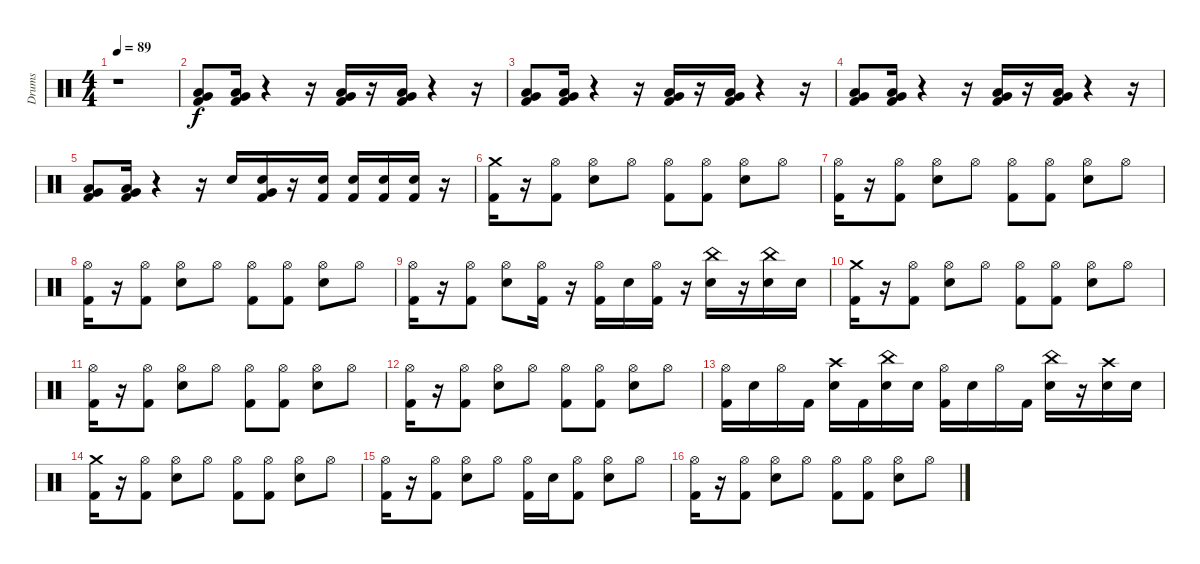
\track ("Drums" "Drums") {instrument percussion}
\staff {score}
\articulation defaults
\ts (4 4)
\tempo 89
\clef neutral
\ks c
r.1{dy f} |
("Very Low Tom (hit)" "Low Tom (hit)" "Kick (hit) 2").8 ("Low Tom (hit)" "Very Low Tom (hit)" "Kick (hit) 2").16 r.4 r.16 ("Low Tom (hit)" "Very Low Tom (hit)" "Kick (hit) 2").16 r.16 ("Low Tom (hit)" "Very Low Tom (hit)" "Kick (hit) 2").16 r.4 r.16 |
("Very Low Tom (hit)" "Low Tom (hit)" "Kick (hit) 2").8 ("Low Tom (hit)" "Very Low Tom (hit)" "Kick (hit) 2").16 r.4 r.16 ("Low Tom (hit)" "Very Low Tom (hit)" "Kick (hit) 2").16 r.16 ("Low Tom (hit)" "Very Low Tom (hit)" "Kick (hit) 2").16 r.4 r.16 |
("Very Low Tom (hit)" "Low Tom (hit)" "Kick (hit) 2").8 ("Low Tom (hit)" "Very Low Tom (hit)" "Kick (hit) 2").16 r.4 r.16 ("Low Tom (hit)" "Very Low Tom (hit)" "Kick (hit) 2").16 r.16 ("Low Tom (hit)" "Very Low Tom (hit)" "Kick (hit) 2").16 r.4 r.16 |
("Very Low Tom (hit)" "Low Tom (hit)" "Kick (hit) 2").8 ("Low Tom (hit)" "Very Low Tom (hit)" "Kick (hit) 2").16 r.4 r.16 "Snare (hit) 2".16 ("Very Low Tom (hit)" "Kick (hit) 2" "Snare (hit) 2").16 r.16 ("Kick (hit) 2" "Snare (hit) 2").16 ("Kick (hit) 2" "Snare (hit) 2").16 ("Kick (hit) 2" "Snare (hit) 2").16 ("Kick (hit) 2" "Snare (hit) 2").16 r.16 |
("Kick (hit) 2" "Crash medium (hit)").16 r.16 ("Hi-Hat (open)" "Kick (hit) 2").8 ("Hi-Hat (open)" "Snare (hit) 2").8 "Hi-Hat (open)".8 ("Kick (hit) 2" "Hi-Hat (open)").8 ("Kick (hit) 2" "Hi-Hat (open)").8 ("Snare (hit) 2" "Hi-Hat (open)").8 "Hi-Hat (open)".8 |
("Kick (hit) 2" "Hi-Hat (open)").16 r.16 ("Kick (hit) 2" "Hi-Hat (open)").8 ("Snare (hit) 2" "Hi-Hat (open)").8 "Hi-Hat (open)".8 ("Kick (hit) 2" "Hi-Hat (open)").8 ("Kick (hit) 2" "Hi-Hat (open)").8 ("Snare (hit) 2" "Hi-Hat (open)").8 "Hi-Hat (open)".8 |
("Kick (hit) 2" "Hi-Hat (open)").16 r.16 ("Kick (hit) 2" "Hi-Hat (open)").8 ("Snare (hit) 2" "Hi-Hat (open)").8 "Hi-Hat (open)".8 ("Kick (hit) 2" "Hi-Hat (open)").8 ("Kick (hit) 2" "Hi-Hat (open)").8 ("Snare (hit) 2" "Hi-Hat (open)").8 "Hi-Hat (open)".8 |
("Kick (hit) 2" "Hi-Hat (open)").16 r.16 ("Kick (hit) 2" "Hi-Hat (open)").8 ("Electric Snare (hit)" "Hi-Hat (open)").8 ("Kick (hit) 2" "Hi-Hat (open)").16 r.16 ("Hi-Hat (open)" "Kick (hit) 2").16 "Snare (hit) 2".16 ("Hi-Hat (open)" "Kick (hit) 2").16 r.16 ("China (hit)" "Snare (hit) 2").16 r.16 ("China (hit)" "Snare (hit) 2").16 "Snare (hit) 2".16 |
("Kick (hit) 2" "Crash medium (hit)").16 r.16 ("Kick (hit) 2" "Hi-Hat (open)").8 ("Hi-Hat (open)" "Snare (hit) 2").8 "Hi-Hat (open)".8 ("Hi-Hat (open)" "Kick (hit) 2").8 ("Kick (hit) 2" "Hi-Hat (open)").8 ("Hi-Hat (open)" "Snare (hit) 2").8 "Hi-Hat (open)".8 |
("Kick (hit) 2" "Hi-Hat (open)").16 r.16 ("Kick (hit) 2" "Hi-Hat (open)").8 ("Snare (hit) 2" "Hi-Hat (open)").8 "Hi-Hat (open)".8 ("Kick (hit) 2" "Hi-Hat (open)").8 ("Kick (hit) 2" "Hi-Hat (open)").8 ("Snare (hit) 2" "Hi-Hat (open)").8 "Hi-Hat (open)".8 |
("Kick (hit) 2" "Hi-Hat (open)").16 r.16 ("Kick (hit) 2" "Hi-Hat (open)").8 ("Snare (hit) 2" "Hi-Hat (open)").8 "Hi-Hat (open)".8 ("Kick (hit) 2" "Hi-Hat (open)").8 ("Kick (hit) 2" "Hi-Hat (open)").8 ("Snare (hit) 2" "Hi-Hat (open)").8 "Hi-Hat (open)".8 |
("Kick (hit) 2" "Hi-Hat (open)").16 "Snare (hit) 2".16 "Hi-Hat (open)".16 "Kick (hit) 2".16 ("Crash high (hit)" "Snare (hit) 2").16 "Kick (hit) 2".16 ("Snare (hit) 2" "China (hit)").16 "Snare (hit) 2".16 ("Kick (hit) 2" "Hi-Hat (open)").16 "Snare (hit) 2".16 "Hi-Hat (open)".16 "Kick (hit) 2".16 ("Snare (hit) 2" "China (hit)").16 r.16 ("Crash high (hit)" "Snare (hit) 2").16 "Snare (hit) 2".16 |
("Kick (hit) 2" "Crash medium (hit)").16 r.16 ("Kick (hit) 2" "Hi-Hat (open)").8 ("Hi-Hat (open)" "Snare (hit) 2").8 "Hi-Hat (open)".8 ("Hi-Hat (open)" "Kick (hit) 2").8 ("Kick (hit) 2" "Hi-Hat (open)").8 ("Hi-Hat (open)" "Snare (hit) 2").8 "Hi-Hat (open)".8 |
("Kick (hit) 2" "Hi-Hat (open)").16 r.16 ("Kick (hit) 2" "Hi-Hat (open)").8 ("Snare (hit) 2" "Hi-Hat (open)").8 "Hi-Hat (open)".8 ("Kick (hit) 2" "Hi-Hat (open)").16 "Snare (hit) 2".16 ("Kick (hit) 2" "Hi-Hat (open)").8 ("Snare (hit) 2" "Hi-Hat (open)").8 "Hi-Hat (open)".8 |
("Kick (hit) 2" "Hi-Hat (open)").16 r.16 ("Kick (hit) 2" "Hi-Hat (open)").8 ("Snare (hit) 2" "Hi-Hat (open)").8 "Hi-Hat (open)".8 ("Kick (hit) 2" "Hi-Hat (open)").8 ("Kick (hit) 2" "Hi-Hat (open)").8 ("Snare (hit) 2" "Hi-Hat (open)").8 "Hi-Hat (open)".8
